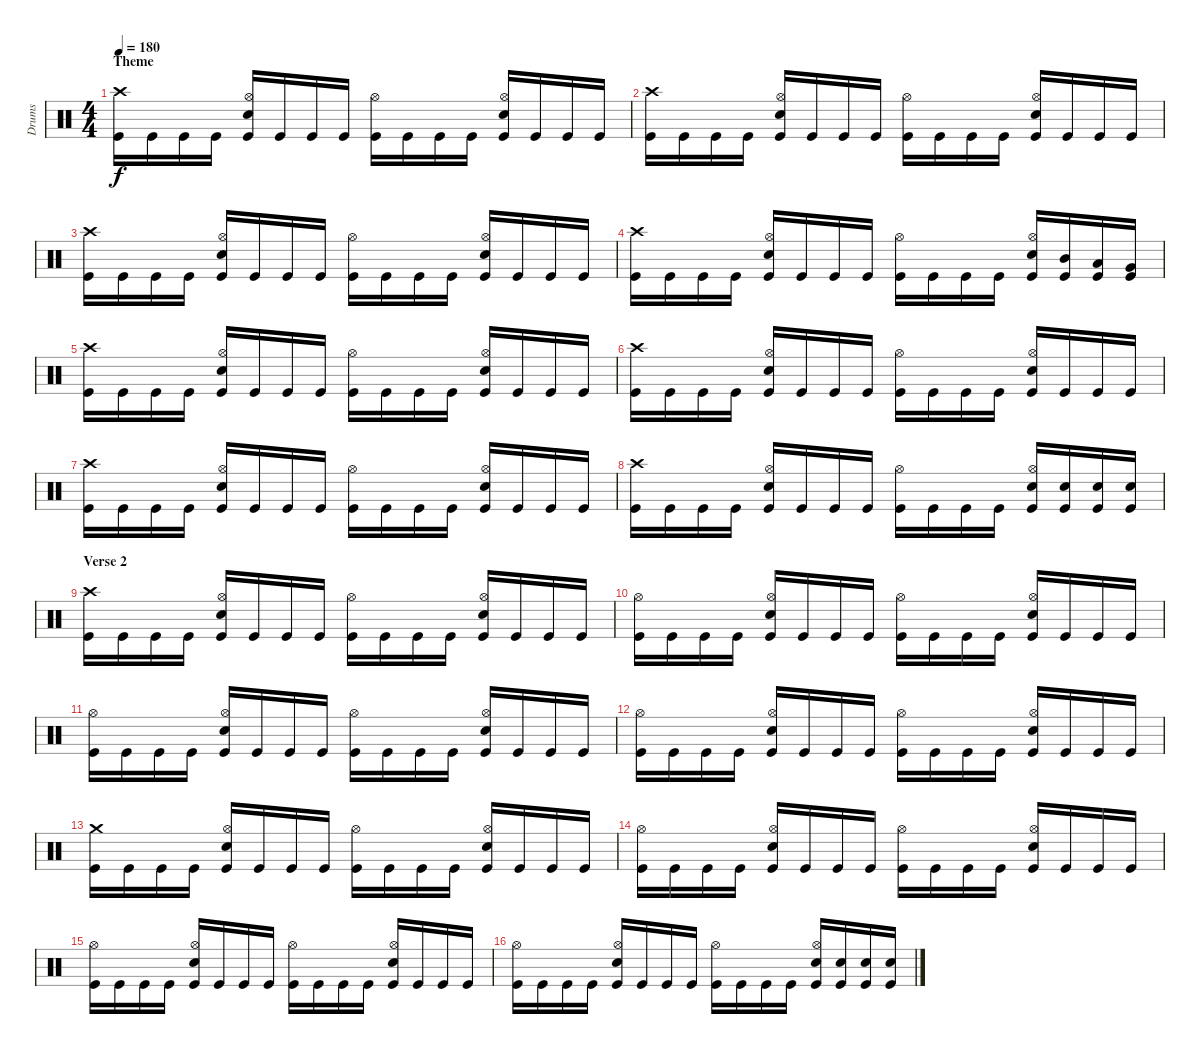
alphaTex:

\track ("Drums" "Drums") {instrument percussion}
\staff {score}
\articulation defaults
\ts (4 4)
\section ("" "Theme")
\tempo 180
\clef neutral
\ks c
("Crash high (hit)" "Kick (hit)").16{dy f} "Kick (hit)".16 "Kick (hit)".16 "Kick (hit)".16 ("Hi-Hat (open)" "Snare (hit) 2" "Kick (hit)").16 "Kick (hit)".16 "Kick (hit)".16 "Kick (hit)".16 ("Hi-Hat (open)" "Kick (hit)").16 "Kick (hit)".16 "Kick (hit)".16 "Kick (hit)".16 ("Hi-Hat (open)" "Snare (hit) 2" "Kick (hit)").16 "Kick (hit)".16 "Kick (hit)".16 "Kick (hit)".16 |
("Crash high (hit)" "Kick (hit)").16 "Kick (hit)".16 "Kick (hit)".16 "Kick (hit)".16 ("Hi-Hat (open)" "Snare (hit) 2" "Kick (hit)").16 "Kick (hit)".16 "Kick (hit)".16 "Kick (hit)".16 ("Hi-Hat (open)" "Kick (hit)").16 "Kick (hit)".16 "Kick (hit)".16 "Kick (hit)".16 ("Hi-Hat (open)" "Snare (hit) 2" "Kick (hit)").16 "Kick (hit)".16 "Kick (hit)".16 "Kick (hit)".16 |
("Crash high (hit)" "Kick (hit)").16 "Kick (hit)".16 "Kick (hit)".16 "Kick (hit)".16 ("Hi-Hat (open)" "Snare (hit) 2" "Kick (hit)").16 "Kick (hit)".16 "Kick (hit)".16 "Kick (hit)".16 ("Hi-Hat (open)" "Kick (hit)").16 "Kick (hit)".16 "Kick (hit)".16 "Kick (hit)".16 ("Hi-Hat (open)" "Snare (hit) 2" "Kick (hit)").16 "Kick (hit)".16 "Kick (hit)".16 "Kick (hit)".16 |
("Crash high (hit)" "Kick (hit)").16 "Kick (hit)".16 "Kick (hit)".16 "Kick (hit)".16 ("Hi-Hat (open)" "Snare (hit) 2" "Kick (hit)").16 "Kick (hit)".16 "Kick (hit)".16 "Kick (hit)".16 ("Hi-Hat (open)" "Kick (hit)").16 "Kick (hit)".16 "Kick (hit)".16 "Kick (hit)".16 ("Hi-Hat (open)" "Snare (hit) 2" "Kick (hit)").16 ("Mid Tom (hit)" "Kick (hit)").16 ("Low Tom (hit)" "Kick (hit)").16 ("Very Low Tom (hit)" "Kick (hit)").16 |
("Crash high (hit)" "Kick (hit)").16 "Kick (hit)".16 "Kick (hit)".16 "Kick (hit)".16 ("Hi-Hat (open)" "Snare (hit) 2" "Kick (hit)").16 "Kick (hit)".16 "Kick (hit)".16 "Kick (hit)".16 ("Hi-Hat (open)" "Kick (hit)").16 "Kick (hit)".16 "Kick (hit)".16 "Kick (hit)".16 ("Hi-Hat (open)" "Snare (hit) 2" "Kick (hit)").16 "Kick (hit)".16 "Kick (hit)".16 "Kick (hit)".16 |
("Crash high (hit)" "Kick (hit)").16 "Kick (hit)".16 "Kick (hit)".16 "Kick (hit)".16 ("Hi-Hat (open)" "Snare (hit) 2" "Kick (hit)").16 "Kick (hit)".16 "Kick (hit)".16 "Kick (hit)".16 ("Hi-Hat (open)" "Kick (hit)").16 "Kick (hit)".16 "Kick (hit)".16 "Kick (hit)".16 ("Hi-Hat (open)" "Snare (hit) 2" "Kick (hit)").16 "Kick (hit)".16 "Kick (hit)".16 "Kick (hit)".16 |
("Crash high (hit)" "Kick (hit)").16 "Kick (hit)".16 "Kick (hit)".16 "Kick (hit)".16 ("Hi-Hat (open)" "Snare (hit) 2" "Kick (hit)").16 "Kick (hit)".16 "Kick (hit)".16 "Kick (hit)".16 ("Hi-Hat (open)" "Kick (hit)").16 "Kick (hit)".16 "Kick (hit)".16 "Kick (hit)".16 ("Hi-Hat (open)" "Snare (hit) 2" "Kick (hit)").16 "Kick (hit)".16 "Kick (hit)".16 "Kick (hit)".16 |
("Crash high (hit)" "Kick (hit)").16 "Kick (hit)".16 "Kick (hit)".16 "Kick (hit)".16 ("Hi-Hat (open)" "Snare (hit) 2" "Kick (hit)").16 "Kick (hit)".16 "Kick (hit)".16 "Kick (hit)".16 ("Hi-Hat (open)" "Kick (hit)").16 "Kick (hit)".16 "Kick (hit)".16 "Kick (hit)".16 ("Hi-Hat (open)" "Snare (hit) 2" "Kick (hit)").16 ("Snare (hit) 2" "Kick (hit)").16 ("Snare (hit) 2" "Kick (hit)").16 ("Snare (hit) 2" "Kick (hit)").16 |
\section ("" "Verse 2")
("Crash high (hit)" "Kick (hit)").16 "Kick (hit)".16 "Kick (hit)".16 "Kick (hit)".16 ("Hi-Hat (open)" "Snare (hit) 2" "Kick (hit)").16 "Kick (hit)".16 "Kick (hit)".16 "Kick (hit)".16 ("Hi-Hat (open)" "Kick (hit)").16 "Kick (hit)".16 "Kick (hit)".16 "Kick (hit)".16 ("Hi-Hat (open)" "Snare (hit) 2" "Kick (hit)").16 "Kick (hit)".16 "Kick (hit)".16 "Kick (hit)".16 |
("Hi-Hat (open)" "Kick (hit)").16 "Kick (hit)".16 "Kick (hit)".16 "Kick (hit)".16 ("Hi-Hat (open)" "Snare (hit) 2" "Kick (hit)").16 "Kick (hit)".16 "Kick (hit)".16 "Kick (hit)".16 ("Hi-Hat (open)" "Kick (hit)").16 "Kick (hit)".16 "Kick (hit)".16 "Kick (hit)".16 ("Hi-Hat (open)" "Snare (hit) 2" "Kick (hit)").16 "Kick (hit)".16 "Kick (hit)".16 "Kick (hit)".16 |
("Hi-Hat (open)" "Kick (hit)").16 "Kick (hit)".16 "Kick (hit)".16 "Kick (hit)".16 ("Hi-Hat (open)" "Snare (hit) 2" "Kick (hit)").16 "Kick (hit)".16 "Kick (hit)".16 "Kick (hit)".16 ("Hi-Hat (open)" "Kick (hit)").16 "Kick (hit)".16 "Kick (hit)".16 "Kick (hit)".16 ("Hi-Hat (open)" "Snare (hit) 2" "Kick (hit)").16 "Kick (hit)".16 "Kick (hit)".16 "Kick (hit)".16 |
("Hi-Hat (open)" "Kick (hit)").16 "Kick (hit)".16 "Kick (hit)".16 "Kick (hit)".16 ("Hi-Hat (open)" "Snare (hit) 2" "Kick (hit)").16 "Kick (hit)".16 "Kick (hit)".16 "Kick (hit)".16 ("Hi-Hat (open)" "Kick (hit)").16 "Kick (hit)".16 "Kick (hit)".16 "Kick (hit)".16 ("Hi-Hat (open)" "Snare (hit) 2" "Kick (hit)").16 "Kick (hit)".16 "Kick (hit)".16 "Kick (hit)".16 |
("Crash medium (hit)" "Kick (hit)").16 "Kick (hit)".16 "Kick (hit)".16 "Kick (hit)".16 ("Hi-Hat (open)" "Snare (hit) 2" "Kick (hit)").16 "Kick (hit)".16 "Kick (hit)".16 "Kick (hit)".16 ("Hi-Hat (open)" "Kick (hit)").16 "Kick (hit)".16 "Kick (hit)".16 "Kick (hit)".16 ("Hi-Hat (open)" "Snare (hit) 2" "Kick (hit)").16 "Kick (hit)".16 "Kick (hit)".16 "Kick (hit)".16 |
("Hi-Hat (open)" "Kick (hit)").16 "Kick (hit)".16 "Kick (hit)".16 "Kick (hit)".16 ("Hi-Hat (open)" "Snare (hit) 2" "Kick (hit)").16 "Kick (hit)".16 "Kick (hit)".16 "Kick (hit)".16 ("Hi-Hat (open)" "Kick (hit)").16 "Kick (hit)".16 "Kick (hit)".16 "Kick (hit)".16 ("Hi-Hat (open)" "Snare (hit) 2" "Kick (hit)").16 "Kick (hit)".16 "Kick (hit)".16 "Kick (hit)".16 |
("Hi-Hat (open)" "Kick (hit)").16 "Kick (hit)".16 "Kick (hit)".16 "Kick (hit)".16 ("Hi-Hat (open)" "Snare (hit) 2" "Kick (hit)").16 "Kick (hit)".16 "Kick (hit)".16 "Kick (hit)".16 ("Hi-Hat (open)" "Kick (hit)").16 "Kick (hit)".16 "Kick (hit)".16 "Kick (hit)".16 ("Hi-Hat (open)" "Snare (hit) 2" "Kick (hit)").16 "Kick (hit)".16 "Kick (hit)".16 "Kick (hit)".16 |
("Hi-Hat (open)" "Kick (hit)").16 "Kick (hit)".16 "Kick (hit)".16 "Kick (hit)".16 ("Hi-Hat (open)" "Snare (hit) 2" "Kick (hit)").16 "Kick (hit)".16 "Kick (hit)".16 "Kick (hit)".16 ("Hi-Hat (open)" "Kick (hit)").16 "Kick (hit)".16 "Kick (hit)".16 "Kick (hit)".16 ("Hi-Hat (open)" "Snare (hit) 2" "Kick (hit)").16 ("Snare (hit) 2" "Kick (hit)").16 ("Snare (hit) 2" "Kick (hit)").16 ("Snare (hit) 2" "Kick (hit)").16
